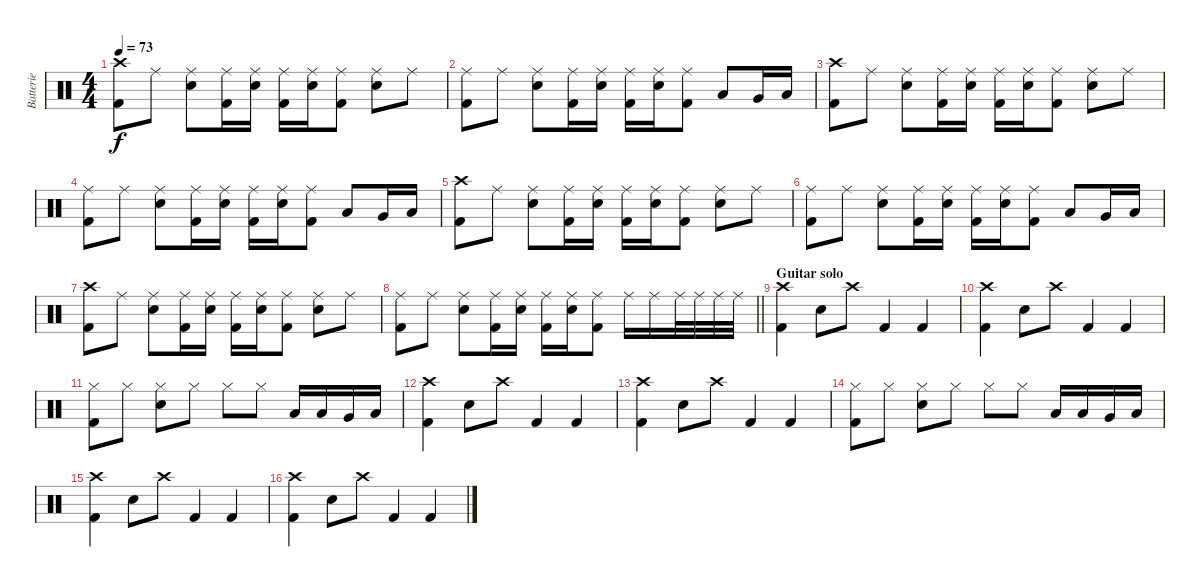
\track ("Batterie" "Batterie") {instrument percussion}
\staff {score}
\articulation defaults
\ts (4 4)
\tempo 73
\clef neutral
\ks c
("Crash high (hit)" "Kick (hit) 2").8{dy f} "Ride (middle)".8 ("Ride (middle)" "Snare (hit) 2").8 ("Ride (middle)" "Kick (hit) 2").16 ("Ride (middle)" "Snare (hit) 2").16 ("Ride (middle)" "Kick (hit) 2").16 ("Ride (middle)" "Snare (hit) 2").16 ("Ride (middle)" "Kick (hit) 2").8 ("Ride (middle)" "Snare (hit) 2").8 "Ride (middle)".8 |
("Ride (middle)" "Kick (hit) 2").8 "Ride (middle)".8 ("Ride (middle)" "Snare (hit) 2").8 ("Ride (middle)" "Kick (hit) 2").16 ("Ride (middle)" "Snare (hit) 2").16 ("Ride (middle)" "Kick (hit) 2").16 ("Ride (middle)" "Snare (hit) 2").16 ("Ride (middle)" "Kick (hit) 2").8 "Low Tom (hit)".8 "Very Low Tom (hit)".16 "Low Floor Tom (hit)".16 |
("Crash high (hit)" "Kick (hit) 2").8 "Ride (middle)".8 ("Ride (middle)" "Snare (hit) 2").8 ("Ride (middle)" "Kick (hit) 2").16 ("Ride (middle)" "Snare (hit) 2").16 ("Ride (middle)" "Kick (hit) 2").16 ("Ride (middle)" "Snare (hit) 2").16 ("Ride (middle)" "Kick (hit) 2").8 ("Ride (middle)" "Snare (hit) 2").8 "Ride (middle)".8 |
("Ride (middle)" "Kick (hit) 2").8 "Ride (middle)".8 ("Ride (middle)" "Snare (hit) 2").8 ("Ride (middle)" "Kick (hit) 2").16 ("Ride (middle)" "Snare (hit) 2").16 ("Ride (middle)" "Kick (hit) 2").16 ("Ride (middle)" "Snare (hit) 2").16 ("Ride (middle)" "Kick (hit) 2").8 "Low Tom (hit)".8 "Very Low Tom (hit)".16 "Low Floor Tom (hit)".16 |
("Crash high (hit)" "Kick (hit) 2").8 "Ride (middle)".8 ("Ride (middle)" "Snare (hit) 2").8 ("Ride (middle)" "Kick (hit) 2").16 ("Ride (middle)" "Snare (hit) 2").16 ("Ride (middle)" "Kick (hit) 2").16 ("Ride (middle)" "Snare (hit) 2").16 ("Ride (middle)" "Kick (hit) 2").8 ("Ride (middle)" "Snare (hit) 2").8 "Ride (middle)".8 |
("Ride (middle)" "Kick (hit) 2").8 "Ride (middle)".8 ("Ride (middle)" "Snare (hit) 2").8 ("Ride (middle)" "Kick (hit) 2").16 ("Ride (middle)" "Snare (hit) 2").16 ("Ride (middle)" "Kick (hit) 2").16 ("Ride (middle)" "Snare (hit) 2").16 ("Ride (middle)" "Kick (hit) 2").8 "Low Tom (hit)".8 "Very Low Tom (hit)".16 "Low Floor Tom (hit)".16 |
("Crash high (hit)" "Kick (hit) 2").8 "Ride (middle)".8 ("Ride (middle)" "Snare (hit) 2").8 ("Ride (middle)" "Kick (hit) 2").16 ("Ride (middle)" "Snare (hit) 2").16 ("Ride (middle)" "Kick (hit) 2").16 ("Ride (middle)" "Snare (hit) 2").16 ("Ride (middle)" "Kick (hit) 2").8 ("Ride (middle)" "Snare (hit) 2").8 "Ride (middle)".8 |
\barLineRight lightlight
("Ride (middle)" "Kick (hit) 2").8 "Ride (middle)".8 ("Ride (middle)" "Snare (hit) 2").8 ("Ride (middle)" "Kick (hit) 2").16 ("Ride (middle)" "Snare (hit) 2").16 ("Ride (middle)" "Kick (hit) 2").16 ("Ride (middle)" "Snare (hit) 2").16 ("Ride (middle)" "Kick (hit) 2").8 "Ride (middle)".16 "Ride (middle)".16 "Ride (middle)".32 "Ride (middle)".32 "Ride (middle)".32 "Ride (middle)".32 |
\section ("" "Guitar solo")
("Crash high (hit)" "Kick (hit) 2").4 "Snare (hit) 2".8 "Crash high (hit)".8 "Kick (hit) 2".4 "Kick (hit) 2".4 |
("Crash high (hit)" "Kick (hit) 2").4 "Snare (hit) 2".8 "Crash high (hit)".8 "Kick (hit) 2".4 "Kick (hit) 2".4 |
("Hi-Hat (closed)" "Kick (hit) 2").8 "Hi-Hat (closed)".8 ("Hi-Hat (closed)" "Snare (hit) 2").8 "Hi-Hat (closed)".8 "Hi-Hat (closed)".8 "Hi-Hat (closed)".8 "Low Tom (hit)".16 "Low Tom (hit)".16 "Very Low Tom (hit)".16 "Low Floor Tom (hit)".16 |
("Crash high (hit)" "Kick (hit) 2").4 "Snare (hit) 2".8 "Crash high (hit)".8 "Kick (hit) 2".4 "Kick (hit) 2".4 |
("Crash high (hit)" "Kick (hit) 2").4 "Snare (hit) 2".8 "Crash high (hit)".8 "Kick (hit) 2".4 "Kick (hit) 2".4 |
("Hi-Hat (closed)" "Kick (hit) 2").8 "Hi-Hat (closed)".8 ("Hi-Hat (closed)" "Snare (hit) 2").8 "Hi-Hat (closed)".8 "Hi-Hat (closed)".8 "Hi-Hat (closed)".8 "Low Tom (hit)".16 "Low Tom (hit)".16 "Very Low Tom (hit)".16 "Low Floor Tom (hit)".16 |
("Crash high (hit)" "Kick (hit) 2").4 "Snare (hit) 2".8 "Crash high (hit)".8 "Kick (hit) 2".4 "Kick (hit) 2".4 |
("Crash high (hit)" "Kick (hit) 2").4 "Snare (hit) 2".8 "Crash high (hit)".8 "Kick (hit) 2".4 "Kick (hit) 2".4
